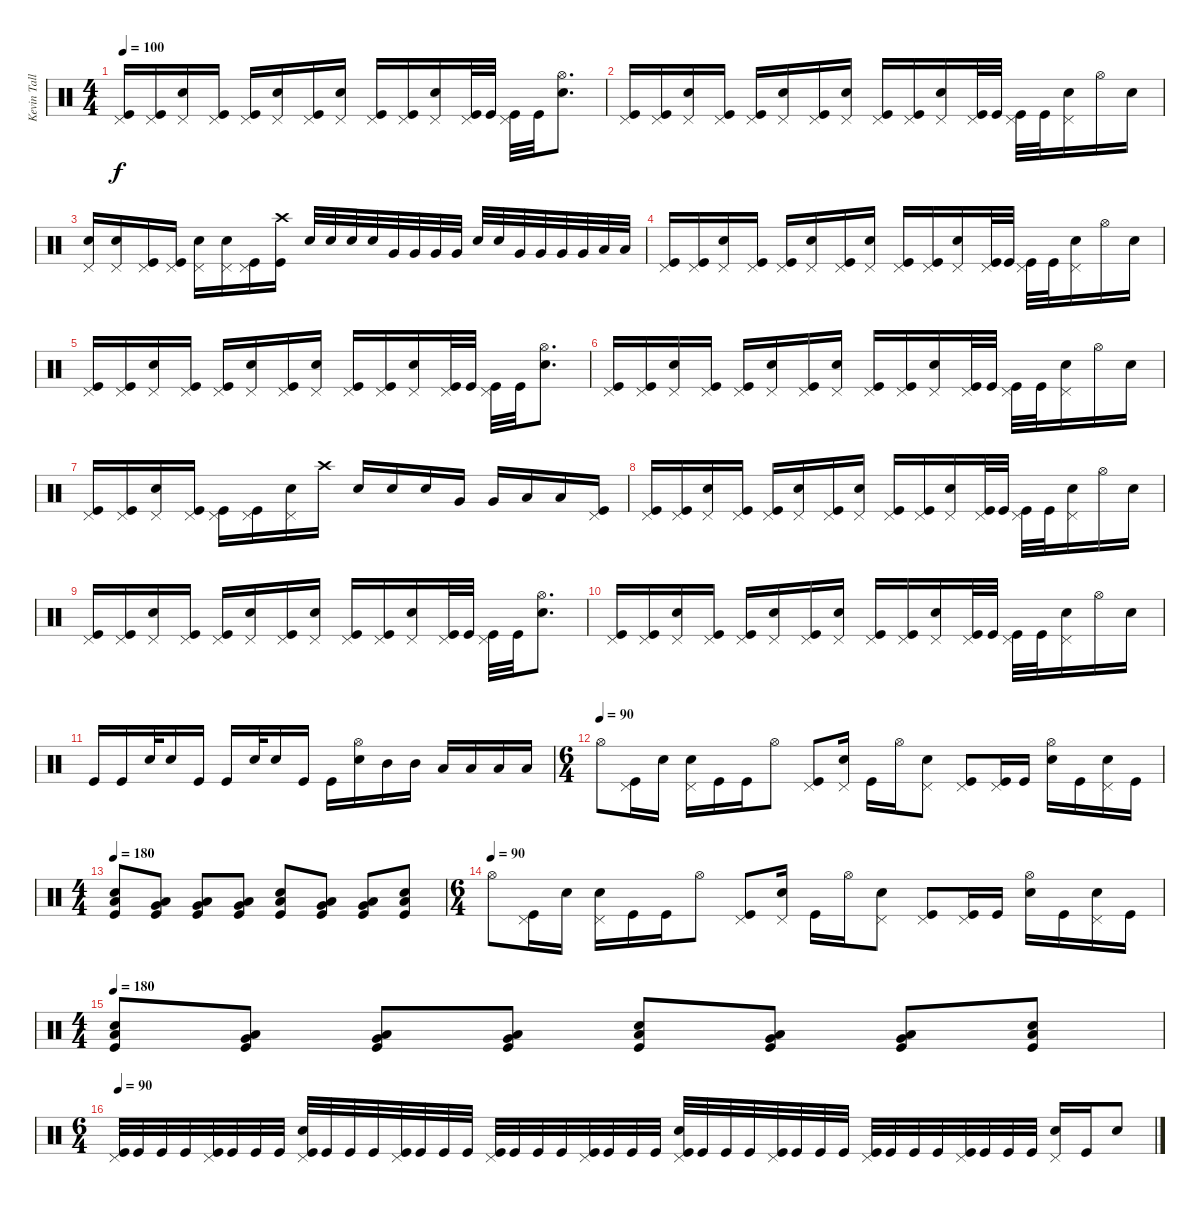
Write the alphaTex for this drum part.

\track ("Kevin Talley" "Kevin Tall") {instrument percussion}
\staff
\articulation defaults
\ts (4 4)
\tempo 100
\clef neutral
\ks c
("Pedal Hi-Hat (hit)" "Kick (hit)").16{dy f} ("Pedal Hi-Hat (hit)" "Kick (hit)").16 ("Pedal Hi-Hat (hit)" "Snare (hit) 2").16 ("Pedal Hi-Hat (hit)" "Kick (hit)").16 ("Pedal Hi-Hat (hit)" "Kick (hit)").16 ("Pedal Hi-Hat (hit)" "Snare (hit) 2").16 ("Pedal Hi-Hat (hit)" "Kick (hit)").16 ("Pedal Hi-Hat (hit)" "Snare (hit) 2").16 ("Pedal Hi-Hat (hit)" "Kick (hit)").16 ("Pedal Hi-Hat (hit)" "Kick (hit)").16 ("Pedal Hi-Hat (hit)" "Snare (hit) 2").16 ("Pedal Hi-Hat (hit)" "Kick (hit)").32 "Kick (hit)".32 ("Pedal Hi-Hat (hit)" "Kick (hit)").32 "Kick (hit)".32 ("Hi-Hat (open)" "Snare (hit) 2").8{d} |
("Pedal Hi-Hat (hit)" "Kick (hit)").16 ("Pedal Hi-Hat (hit)" "Kick (hit)").16 ("Pedal Hi-Hat (hit)" "Snare (hit) 2").16 ("Pedal Hi-Hat (hit)" "Kick (hit)").16 ("Pedal Hi-Hat (hit)" "Kick (hit)").16 ("Pedal Hi-Hat (hit)" "Snare (hit) 2").16 ("Pedal Hi-Hat (hit)" "Kick (hit)").16 ("Pedal Hi-Hat (hit)" "Snare (hit) 2").16 ("Pedal Hi-Hat (hit)" "Kick (hit)").16 ("Pedal Hi-Hat (hit)" "Kick (hit)").16 ("Pedal Hi-Hat (hit)" "Snare (hit) 2").16 ("Pedal Hi-Hat (hit)" "Kick (hit)").32 "Kick (hit)".32 ("Pedal Hi-Hat (hit)" "Kick (hit)").32 "Kick (hit)".32 ("Pedal Hi-Hat (hit)" "Snare (hit) 2").16 "Hi-Hat (open)".16 "Snare (hit) 2".16 |
("Pedal Hi-Hat (hit)" "Snare (hit) 2").16 ("Pedal Hi-Hat (hit)" "Snare (hit) 2").16 ("Pedal Hi-Hat (hit)" "Kick (hit)").16 ("Pedal Hi-Hat (hit)" "Kick (hit)").16 ("Pedal Hi-Hat (hit)" "Snare (hit) 2").16 ("Pedal Hi-Hat (hit)" "Snare (hit) 2").16 ("Pedal Hi-Hat (hit)" "Kick (hit)").16 ("Crash high (hit)" "Kick (hit)").16 "Snare (hit) 2".32 "Snare (hit) 2".32 "Snare (hit) 2".32 "Snare (hit) 2".32 "Very Low Tom (hit)".32 "Very Low Tom (hit)".32 "Very Low Tom (hit)".32 "Very Low Tom (hit)".32 "Snare (hit) 2".32 "Snare (hit) 2".32 "Very Low Tom (hit)".32 "Very Low Tom (hit)".32 "Very Low Tom (hit)".32 "Very Low Tom (hit)".32 "Low Floor Tom (hit)".32 "Low Floor Tom (hit)".32 |
("Pedal Hi-Hat (hit)" "Kick (hit)").16 ("Pedal Hi-Hat (hit)" "Kick (hit)").16 ("Pedal Hi-Hat (hit)" "Snare (hit) 2").16 ("Pedal Hi-Hat (hit)" "Kick (hit)").16 ("Pedal Hi-Hat (hit)" "Kick (hit)").16 ("Pedal Hi-Hat (hit)" "Snare (hit) 2").16 ("Pedal Hi-Hat (hit)" "Kick (hit)").16 ("Pedal Hi-Hat (hit)" "Snare (hit) 2").16 ("Pedal Hi-Hat (hit)" "Kick (hit)").16 ("Pedal Hi-Hat (hit)" "Kick (hit)").16 ("Pedal Hi-Hat (hit)" "Snare (hit) 2").16 ("Pedal Hi-Hat (hit)" "Kick (hit)").32 "Kick (hit)".32 ("Pedal Hi-Hat (hit)" "Kick (hit)").32 "Kick (hit)".32 ("Pedal Hi-Hat (hit)" "Snare (hit) 2").16 "Hi-Hat (open)".16 "Snare (hit) 2".16 |
("Pedal Hi-Hat (hit)" "Kick (hit)").16 ("Pedal Hi-Hat (hit)" "Kick (hit)").16 ("Pedal Hi-Hat (hit)" "Snare (hit) 2").16 ("Pedal Hi-Hat (hit)" "Kick (hit)").16 ("Pedal Hi-Hat (hit)" "Kick (hit)").16 ("Pedal Hi-Hat (hit)" "Snare (hit) 2").16 ("Pedal Hi-Hat (hit)" "Kick (hit)").16 ("Pedal Hi-Hat (hit)" "Snare (hit) 2").16 ("Pedal Hi-Hat (hit)" "Kick (hit)").16 ("Pedal Hi-Hat (hit)" "Kick (hit)").16 ("Pedal Hi-Hat (hit)" "Snare (hit) 2").16 ("Pedal Hi-Hat (hit)" "Kick (hit)").32 "Kick (hit)".32 ("Pedal Hi-Hat (hit)" "Kick (hit)").32 "Kick (hit)".32 ("Hi-Hat (open)" "Snare (hit) 2").8{d} |
("Pedal Hi-Hat (hit)" "Kick (hit)").16 ("Pedal Hi-Hat (hit)" "Kick (hit)").16 ("Pedal Hi-Hat (hit)" "Snare (hit) 2").16 ("Pedal Hi-Hat (hit)" "Kick (hit)").16 ("Pedal Hi-Hat (hit)" "Kick (hit)").16 ("Pedal Hi-Hat (hit)" "Snare (hit) 2").16 ("Pedal Hi-Hat (hit)" "Kick (hit)").16 ("Pedal Hi-Hat (hit)" "Snare (hit) 2").16 ("Pedal Hi-Hat (hit)" "Kick (hit)").16 ("Pedal Hi-Hat (hit)" "Kick (hit)").16 ("Pedal Hi-Hat (hit)" "Snare (hit) 2").16 ("Pedal Hi-Hat (hit)" "Kick (hit)").32 "Kick (hit)".32 ("Pedal Hi-Hat (hit)" "Kick (hit)").32 "Kick (hit)".32 ("Pedal Hi-Hat (hit)" "Snare (hit) 2").16 "Hi-Hat (open)".16 "Snare (hit) 2".16 |
("Pedal Hi-Hat (hit)" "Kick (hit)").16 ("Pedal Hi-Hat (hit)" "Kick (hit)").16 ("Pedal Hi-Hat (hit)" "Snare (hit) 2").16 ("Pedal Hi-Hat (hit)" "Kick (hit)").16 ("Pedal Hi-Hat (hit)" "Kick (hit)").16 ("Pedal Hi-Hat (hit)" "Kick (hit)").16 ("Pedal Hi-Hat (hit)" "Snare (hit) 2").16 "Crash high (hit)".16 "Snare (hit) 2".16 "Snare (hit) 2".16 "Snare (hit) 2".16 "Very Low Tom (hit)".16 "Very Low Tom (hit)".16 "Low Floor Tom (hit)".16 "Low Floor Tom (hit)".16 ("Pedal Hi-Hat (hit)" "Kick (hit)").16 |
("Pedal Hi-Hat (hit)" "Kick (hit)").16 ("Pedal Hi-Hat (hit)" "Kick (hit)").16 ("Pedal Hi-Hat (hit)" "Snare (hit) 2").16 ("Pedal Hi-Hat (hit)" "Kick (hit)").16 ("Pedal Hi-Hat (hit)" "Kick (hit)").16 ("Pedal Hi-Hat (hit)" "Snare (hit) 2").16 ("Pedal Hi-Hat (hit)" "Kick (hit)").16 ("Pedal Hi-Hat (hit)" "Snare (hit) 2").16 ("Pedal Hi-Hat (hit)" "Kick (hit)").16 ("Pedal Hi-Hat (hit)" "Kick (hit)").16 ("Pedal Hi-Hat (hit)" "Snare (hit) 2").16 ("Pedal Hi-Hat (hit)" "Kick (hit)").32 "Kick (hit)".32 ("Pedal Hi-Hat (hit)" "Kick (hit)").32 "Kick (hit)".32 ("Pedal Hi-Hat (hit)" "Snare (hit) 2").16 "Hi-Hat (open)".16 "Snare (hit) 2".16 |
("Pedal Hi-Hat (hit)" "Kick (hit)").16 ("Pedal Hi-Hat (hit)" "Kick (hit)").16 ("Pedal Hi-Hat (hit)" "Snare (hit) 2").16 ("Pedal Hi-Hat (hit)" "Kick (hit)").16 ("Pedal Hi-Hat (hit)" "Kick (hit)").16 ("Pedal Hi-Hat (hit)" "Snare (hit) 2").16 ("Pedal Hi-Hat (hit)" "Kick (hit)").16 ("Pedal Hi-Hat (hit)" "Snare (hit) 2").16 ("Pedal Hi-Hat (hit)" "Kick (hit)").16 ("Pedal Hi-Hat (hit)" "Kick (hit)").16 ("Pedal Hi-Hat (hit)" "Snare (hit) 2").16 ("Pedal Hi-Hat (hit)" "Kick (hit)").32 "Kick (hit)".32 ("Pedal Hi-Hat (hit)" "Kick (hit)").32 "Kick (hit)".32 ("Hi-Hat (open)" "Snare (hit) 2").8{d} |
("Pedal Hi-Hat (hit)" "Kick (hit)").16 ("Pedal Hi-Hat (hit)" "Kick (hit)").16 ("Pedal Hi-Hat (hit)" "Snare (hit) 2").16 ("Pedal Hi-Hat (hit)" "Kick (hit)").16 ("Pedal Hi-Hat (hit)" "Kick (hit)").16 ("Pedal Hi-Hat (hit)" "Snare (hit) 2").16 ("Pedal Hi-Hat (hit)" "Kick (hit)").16 ("Pedal Hi-Hat (hit)" "Snare (hit) 2").16 ("Pedal Hi-Hat (hit)" "Kick (hit)").16 ("Pedal Hi-Hat (hit)" "Kick (hit)").16 ("Pedal Hi-Hat (hit)" "Snare (hit) 2").16 ("Pedal Hi-Hat (hit)" "Kick (hit)").32 "Kick (hit)".32 ("Pedal Hi-Hat (hit)" "Kick (hit)").32 "Kick (hit)".32 ("Pedal Hi-Hat (hit)" "Snare (hit) 2").16 "Hi-Hat (open)".16 "Snare (hit) 2".16 |
"Kick (hit)".16 "Kick (hit)".16 "Snare (hit) 2".32 "Snare (hit) 2".16 "Kick (hit)".16 "Kick (hit)".16 "Snare (hit) 2".32 "Snare (hit) 2".16 "Kick (hit)".16 "Kick (hit)".16 ("Hi-Hat (open)" "Snare (hit) 2").16 "Mid Tom (hit)".16 "Mid Tom (hit)".16 "Low Tom (hit)".16 "Low Tom (hit)".16 "Low Floor Tom (hit)".16 "Low Floor Tom (hit)".16 |
\ts (6 4)
\tempo (90)
"Hi-Hat (open)".8 ("Pedal Hi-Hat (hit)" "Kick (hit)").16 "Snare (hit) 2".16 ("Pedal Hi-Hat (hit)" "Snare (hit) 2").16 "Kick (hit)".16 "Kick (hit)".16 "Hi-Hat (open)".8 ("Pedal Hi-Hat (hit)" "Kick (hit)").8 ("Pedal Hi-Hat (hit)" "Snare (hit) 2").16 "Kick (hit)".16 "Hi-Hat (open)".16 ("Pedal Hi-Hat (hit)" "Snare (hit) 2").8 ("Pedal Hi-Hat (hit)" "Kick (hit)").8 ("Pedal Hi-Hat (hit)" "Kick (hit)").16 "Kick (hit)".16 ("Hi-Hat (open)" "Snare (hit) 2").16 "Kick (hit)".16 ("Pedal Hi-Hat (hit)" "Snare (hit) 2").16 "Kick (hit)".16 |
\ts (4 4)
\tempo 180
("Snare (hit) 2" "Low Floor Tom (hit)" "Kick (hit)").8 ("Very Low Tom (hit)" "Low Floor Tom (hit)" "Kick (hit)").8 ("Very Low Tom (hit)" "Low Floor Tom (hit)" "Kick (hit)").8 ("Very Low Tom (hit)" "Low Floor Tom (hit)" "Kick (hit)").8 ("Snare (hit) 2" "Low Floor Tom (hit)" "Kick (hit)").8 ("Very Low Tom (hit)" "Low Floor Tom (hit)" "Kick (hit)").8 ("Very Low Tom (hit)" "Low Floor Tom (hit)" "Kick (hit)").8 ("Snare (hit) 2" "Low Floor Tom (hit)" "Kick (hit)").8 |
\ts (6 4)
\tempo (90)
"Hi-Hat (open)".8 ("Pedal Hi-Hat (hit)" "Kick (hit)").16 "Snare (hit) 2".16 ("Pedal Hi-Hat (hit)" "Snare (hit) 2").16 "Kick (hit)".16 "Kick (hit)".16 "Hi-Hat (open)".8 ("Pedal Hi-Hat (hit)" "Kick (hit)").8 ("Pedal Hi-Hat (hit)" "Snare (hit) 2").16 "Kick (hit)".16 "Hi-Hat (open)".16 ("Pedal Hi-Hat (hit)" "Snare (hit) 2").8 ("Pedal Hi-Hat (hit)" "Kick (hit)").8 ("Pedal Hi-Hat (hit)" "Kick (hit)").16 "Kick (hit)".16 ("Hi-Hat (open)" "Snare (hit) 2").16 "Kick (hit)".16 ("Pedal Hi-Hat (hit)" "Snare (hit) 2").16 "Kick (hit)".16 |
\ts (4 4)
\tempo 180
("Snare (hit) 2" "Low Floor Tom (hit)" "Kick (hit)").8 ("Very Low Tom (hit)" "Low Floor Tom (hit)" "Kick (hit)").8 ("Very Low Tom (hit)" "Low Floor Tom (hit)" "Kick (hit)").8 ("Very Low Tom (hit)" "Low Floor Tom (hit)" "Kick (hit)").8 ("Snare (hit) 2" "Low Floor Tom (hit)" "Kick (hit)").8 ("Very Low Tom (hit)" "Low Floor Tom (hit)" "Kick (hit)").8 ("Very Low Tom (hit)" "Low Floor Tom (hit)" "Kick (hit)").8 ("Snare (hit) 2" "Low Floor Tom (hit)" "Kick (hit)").8 |
\ts (6 4)
\tempo 90
("Pedal Hi-Hat (hit)" "Kick (hit)").32 "Kick (hit)".32 "Kick (hit)".32 "Kick (hit)".32 ("Pedal Hi-Hat (hit)" "Kick (hit)").32 "Kick (hit)".32 "Kick (hit)".32 "Kick (hit)".32 ("Pedal Hi-Hat (hit)" "Snare (hit) 2" "Kick (hit)").32 "Kick (hit)".32 "Kick (hit)".32 "Kick (hit)".32 ("Pedal Hi-Hat (hit)" "Kick (hit)").32 "Kick (hit)".32 "Kick (hit)".32 "Kick (hit)".32 ("Pedal Hi-Hat (hit)" "Kick (hit)").32 "Kick (hit)".32 "Kick (hit)".32 "Kick (hit)".32 ("Pedal Hi-Hat (hit)" "Kick (hit)").32 "Kick (hit)".32 "Kick (hit)".32 "Kick (hit)".32 ("Pedal Hi-Hat (hit)" "Snare (hit) 2" "Kick (hit)").32 "Kick (hit)".32 "Kick (hit)".32 "Kick (hit)".32 ("Pedal Hi-Hat (hit)" "Kick (hit)").32 "Kick (hit)".32 "Kick (hit)".32 "Kick (hit)".32 ("Pedal Hi-Hat (hit)" "Kick (hit)").32 "Kick (hit)".32 "Kick (hit)".32 "Kick (hit)".32 ("Pedal Hi-Hat (hit)" "Kick (hit)").32 "Kick (hit)".32 "Kick (hit)".32 "Kick (hit)".32 ("Pedal Hi-Hat (hit)" "Snare (hit) 2").16 "Kick (hit)".16 "Snare (hit) 2".8
